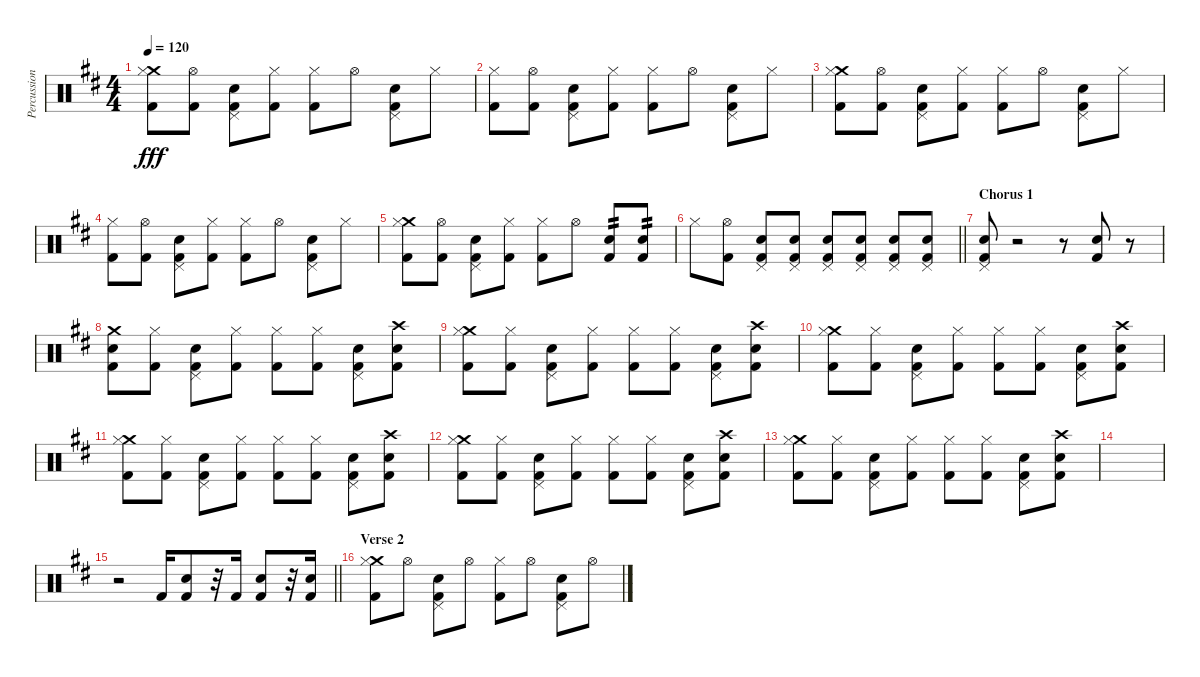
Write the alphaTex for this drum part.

\track ("Percussion: Boz Burrell" "Percussion") {instrument percussion}
\staff {score}
\articulation defaults
\ts (4 4)
\tempo 120
\clef neutral
\ks d
("Crash medium (hit)" "Hi-Hat (closed)" "Kick (hit) 2").8{dy fff} ("Hi-Hat (open)" "Kick (hit) 2").8 ("Pedal Hi-Hat (hit)" "Snare (hit) 2" "Kick (hit) 2").8 ("Hi-Hat (closed)" "Kick (hit) 2").8 ("Hi-Hat (closed)" "Kick (hit) 2").8 "Hi-Hat (open)".8 ("Pedal Hi-Hat (hit)" "Snare (hit) 2" "Kick (hit) 2").8 "Hi-Hat (closed)".8 |
("Hi-Hat (closed)" "Kick (hit) 2").8 ("Hi-Hat (open)" "Kick (hit) 2").8 ("Pedal Hi-Hat (hit)" "Snare (hit) 2" "Kick (hit) 2").8 ("Hi-Hat (closed)" "Kick (hit) 2").8 ("Hi-Hat (closed)" "Kick (hit) 2").8 "Hi-Hat (open)".8 ("Pedal Hi-Hat (hit)" "Snare (hit) 2" "Kick (hit) 2").8 "Hi-Hat (closed)".8 |
("Crash medium (hit)" "Hi-Hat (closed)" "Kick (hit) 2").8 ("Hi-Hat (open)" "Kick (hit) 2").8 ("Pedal Hi-Hat (hit)" "Snare (hit) 2" "Kick (hit) 2").8 ("Hi-Hat (closed)" "Kick (hit) 2").8 ("Hi-Hat (closed)" "Kick (hit) 2").8 "Hi-Hat (open)".8 ("Pedal Hi-Hat (hit)" "Snare (hit) 2" "Kick (hit) 2").8 "Hi-Hat (closed)".8 |
("Hi-Hat (closed)" "Kick (hit) 2").8 ("Hi-Hat (open)" "Kick (hit) 2").8 ("Pedal Hi-Hat (hit)" "Snare (hit) 2" "Kick (hit) 2").8 ("Hi-Hat (closed)" "Kick (hit) 2").8 ("Hi-Hat (closed)" "Kick (hit) 2").8 "Hi-Hat (open)".8 ("Pedal Hi-Hat (hit)" "Snare (hit) 2" "Kick (hit) 2").8 "Hi-Hat (closed)".8 |
("Crash medium (hit)" "Hi-Hat (closed)" "Kick (hit) 2").8 ("Hi-Hat (open)" "Kick (hit) 2").8 ("Pedal Hi-Hat (hit)" "Snare (hit) 2" "Kick (hit) 2").8 ("Hi-Hat (closed)" "Kick (hit) 2").8 ("Hi-Hat (closed)" "Kick (hit) 2").8 "Hi-Hat (open)".8 ("Snare (hit) 2" "Kick (hit) 2").8{tp 2} ("Snare (hit) 2" "Kick (hit) 2").8{tp 2} |
\barLineRight lightlight "Hi-Hat (closed)".8
("Hi-Hat (open)" "Kick (hit) 2").8 ("Pedal Hi-Hat (hit)" "Snare (hit) 2" "Kick (hit) 2").8 ("Pedal Hi-Hat (hit)" "Snare (hit) 2" "Kick (hit) 2").8 ("Pedal Hi-Hat (hit)" "Snare (hit) 2" "Kick (hit) 2").8 ("Pedal Hi-Hat (hit)" "Snare (hit) 2" "Kick (hit) 2").8 ("Pedal Hi-Hat (hit)" "Snare (hit) 2" "Kick (hit) 2").8 ("Pedal Hi-Hat (hit)" "Snare (hit) 2" "Kick (hit) 2").8 |
\section ("" "Chorus 1")
("Pedal Hi-Hat (hit)" "Snare (hit) 2" "Kick (hit) 2").8 r.2 r.8 ("Snare (hit) 2" "Kick (hit) 2").8 r.8 |
("Crash medium (hit)" "Snare (hit) 2" "Kick (hit) 2").8 ("Hi-Hat (closed)" "Kick (hit) 2").8 ("Pedal Hi-Hat (hit)" "Snare (hit) 2" "Kick (hit) 2").8 ("Hi-Hat (closed)" "Kick (hit) 2").8 ("Hi-Hat (closed)" "Kick (hit) 2").8 ("Hi-Hat (closed)" "Kick (hit) 2").8 ("Pedal Hi-Hat (hit)" "Snare (hit) 2" "Kick (hit) 2").8 ("Crash high (hit)" "Snare (hit) 2" "Kick (hit) 2").8 |
("Crash medium (hit)" "Hi-Hat (closed)" "Kick (hit) 2").8 ("Hi-Hat (closed)" "Kick (hit) 2").8 ("Pedal Hi-Hat (hit)" "Snare (hit) 2" "Kick (hit) 2").8 ("Hi-Hat (closed)" "Kick (hit) 2").8 ("Hi-Hat (closed)" "Kick (hit) 2").8 ("Hi-Hat (closed)" "Kick (hit) 2").8 ("Pedal Hi-Hat (hit)" "Snare (hit) 2" "Kick (hit) 2").8 ("Crash high (hit)" "Snare (hit) 2" "Kick (hit) 2").8 |
("Crash medium (hit)" "Hi-Hat (closed)" "Kick (hit) 2").8 ("Hi-Hat (closed)" "Kick (hit) 2").8 ("Pedal Hi-Hat (hit)" "Snare (hit) 2" "Kick (hit) 2").8 ("Hi-Hat (closed)" "Kick (hit) 2").8 ("Hi-Hat (closed)" "Kick (hit) 2").8 ("Hi-Hat (closed)" "Kick (hit) 2").8 ("Pedal Hi-Hat (hit)" "Snare (hit) 2" "Kick (hit) 2").8 ("Crash high (hit)" "Snare (hit) 2" "Kick (hit) 2").8 |
("Crash medium (hit)" "Hi-Hat (closed)" "Kick (hit) 2").8 ("Hi-Hat (closed)" "Kick (hit) 2").8 ("Pedal Hi-Hat (hit)" "Snare (hit) 2" "Kick (hit) 2").8 ("Hi-Hat (closed)" "Kick (hit) 2").8 ("Hi-Hat (closed)" "Kick (hit) 2").8 ("Hi-Hat (closed)" "Kick (hit) 2").8 ("Pedal Hi-Hat (hit)" "Snare (hit) 2" "Kick (hit) 2").8 ("Crash high (hit)" "Snare (hit) 2" "Kick (hit) 2").8 |
("Crash medium (hit)" "Hi-Hat (closed)" "Kick (hit) 2").8 ("Hi-Hat (closed)" "Kick (hit) 2").8 ("Pedal Hi-Hat (hit)" "Snare (hit) 2" "Kick (hit) 2").8 ("Hi-Hat (closed)" "Kick (hit) 2").8 ("Hi-Hat (closed)" "Kick (hit) 2").8 ("Hi-Hat (closed)" "Kick (hit) 2").8 ("Pedal Hi-Hat (hit)" "Snare (hit) 2" "Kick (hit) 2").8 ("Crash high (hit)" "Snare (hit) 2" "Kick (hit) 2").8 |
("Crash medium (hit)" "Hi-Hat (closed)" "Kick (hit) 2").8 ("Hi-Hat (closed)" "Kick (hit) 2").8 ("Pedal Hi-Hat (hit)" "Snare (hit) 2" "Kick (hit) 2").8 ("Hi-Hat (closed)" "Kick (hit) 2").8 ("Hi-Hat (closed)" "Kick (hit) 2").8 ("Hi-Hat (closed)" "Kick (hit) 2").8 ("Pedal Hi-Hat (hit)" "Snare (hit) 2" "Kick (hit) 2").8 ("Crash high (hit)" "Snare (hit) 2" "Kick (hit) 2").8 |
|
\barLineRight lightlight
r.2 "Kick (hit) 2".16 ("Snare (hit) 2" "Kick (hit) 2").8 r.32 "Kick (hit) 2".16 ("Snare (hit) 2" "Kick (hit) 2").8 r.32 ("Electric Snare (hit)" "Kick (hit) 2").16 |
\section ("" "Verse 2")
("Crash medium (hit)" "Hi-Hat (closed)" "Kick (hit) 2").8 "Hi-Hat (open)".8 ("Pedal Hi-Hat (hit)" "Snare (hit) 2" "Kick (hit) 2").8 "Hi-Hat (open)".8 ("Hi-Hat (closed)" "Kick (hit) 2").8 "Hi-Hat (open)".8 ("Pedal Hi-Hat (hit)" "Snare (hit) 2" "Kick (hit) 2").8 "Hi-Hat (open)".8
